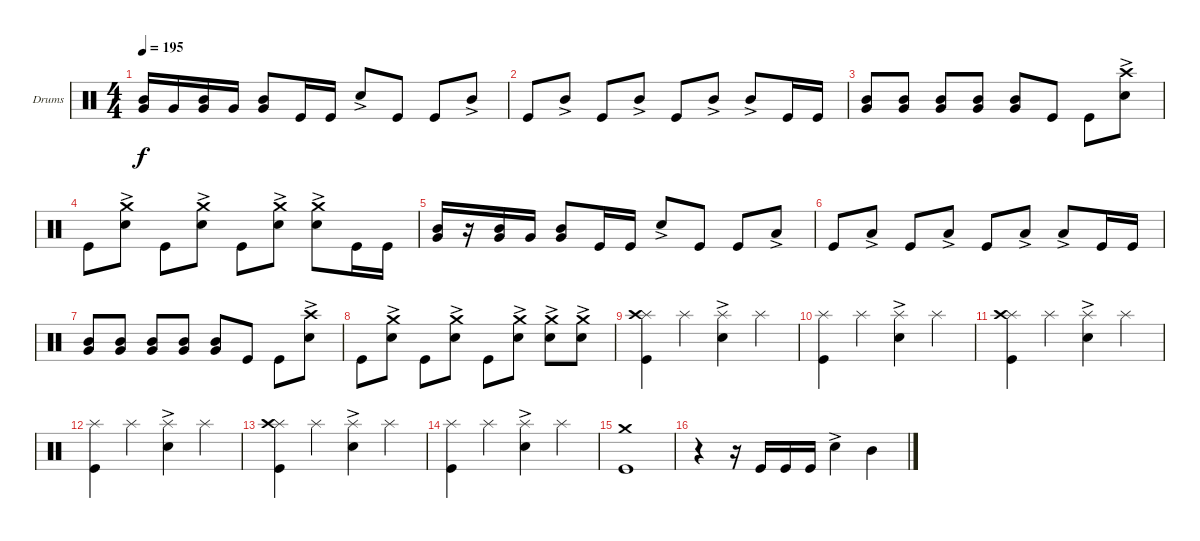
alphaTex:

\defaultSystemsLayout 4
\bracketExtendMode groupsimilarinstruments
\firstSystemTrackNameOrientation horizontal
\otherSystemsTrackNameOrientation horizontal
\track ("Drumkit" "Drums") {instrument percussion}
\staff {score}
\articulation defaults
\ts (4 4)
\tempo 195
\clef neutral
\ks c
("Very Low Tom (hit)" "Mid Tom (hit)").16{dy f} "Very Low Tom (hit)".16 ("Very Low Tom (hit)" "Mid Tom (hit)").16 "Very Low Tom (hit)".16 ("Mid Tom (hit)" "Very Low Tom (hit)").8 "Kick (hit)".16 "Kick (hit)".16 "Snare (hit) 2"{ac}.8 "Kick (hit)".8 "Kick (hit)".8 "Mid Tom (hit)"{ac}.8 |
"Kick (hit)".8 "Mid Tom (hit)"{ac}.8 "Kick (hit)".8 "Mid Tom (hit)"{ac}.8 "Kick (hit)".8 "Mid Tom (hit)"{ac}.8 "Mid Tom (hit)"{ac}.8 "Kick (hit)".16 "Kick (hit)".16 |
("Very Low Tom (hit)" "Mid Tom (hit)").8 ("Very Low Tom (hit)" "Mid Tom (hit)").8 ("Very Low Tom (hit)" "Mid Tom (hit)").8 ("Very Low Tom (hit)" "Mid Tom (hit)").8 ("Mid Tom (hit)" "Very Low Tom (hit)").8 "Kick (hit)".8 "Kick (hit)".8 ("Snare (hit) 2"{ac} "Crash high (hit)").8 |
"Kick (hit)".8 ("Snare (hit) 2"{ac} "Crash medium (hit)").8 "Kick (hit)".8 ("Snare (hit) 2"{ac} "Crash medium (hit)").8 "Kick (hit)".8 ("Snare (hit) 2"{ac} "Crash medium (hit)").8 ("Snare (hit) 2"{ac} "Crash medium (hit)").8 "Kick (hit)".16 "Kick (hit)".16 |
("Very Low Tom (hit)" "Mid Tom (hit)").16 r.16 ("Very Low Tom (hit)" "Mid Tom (hit)").16 "Very Low Tom (hit)".16 ("Mid Tom (hit)" "Very Low Tom (hit)").8 "Kick (hit)".16 "Kick (hit)".16 "Snare (hit) 2"{ac}.8 "Kick (hit)".8 "Kick (hit)".8 "Low Tom (hit)"{ac}.8 |
"Kick (hit)".8 "Low Tom (hit)"{ac}.8 "Kick (hit)".8 "Low Tom (hit)"{ac}.8 "Kick (hit)".8 "Low Tom (hit)"{ac}.8 "Low Tom (hit)"{ac}.8 "Kick (hit)".16 "Kick (hit)".16 |
("Very Low Tom (hit)" "Mid Tom (hit)").8 ("Very Low Tom (hit)" "Mid Tom (hit)").8 ("Very Low Tom (hit)" "Mid Tom (hit)").8 ("Very Low Tom (hit)" "Mid Tom (hit)").8 ("Mid Tom (hit)" "Very Low Tom (hit)").8 "Kick (hit)".8 "Kick (hit)".8 ("Snare (hit) 2"{ac} "Crash high (hit)").8 |
"Kick (hit)".8 ("Snare (hit) 2"{ac} "Crash medium (hit)").8 "Kick (hit)".8 ("Snare (hit) 2"{ac} "Crash medium (hit)").8 "Kick (hit)".8 ("Snare (hit) 2"{ac} "Crash medium (hit)").8 ("Snare (hit) 2"{ac} "Crash medium (hit)").8 ("Snare (hit) 2"{ac} "Crash medium (hit)").8 |
("Kick (hit)" "Splash (hit)" "Crash high (hit)").4 "Splash (hit)".4 ("Snare (hit) 2"{ac} "Splash (hit)").4 "Splash (hit)".4 |
("Kick (hit)" "Splash (hit)").4 "Splash (hit)".4 ("Snare (hit) 2"{ac} "Splash (hit)").4 "Splash (hit)".4 |
("Kick (hit)" "Splash (hit)" "Crash high (hit)").4 "Splash (hit)".4 ("Snare (hit) 2"{ac} "Splash (hit)").4 "Splash (hit)".4 |
("Kick (hit)" "Splash (hit)").4 "Splash (hit)".4 ("Snare (hit) 2"{ac} "Splash (hit)").4 "Splash (hit)".4 |
("Kick (hit)" "Splash (hit)" "Crash high (hit)").4 "Splash (hit)".4 ("Snare (hit) 2"{ac} "Splash (hit)").4 "Splash (hit)".4 |
("Kick (hit)" "Splash (hit)").4 "Splash (hit)".4 ("Snare (hit) 2"{ac} "Splash (hit)").4 "Splash (hit)".4 |
("Kick (hit)" "Crash medium (hit)").1 |
r.4 r.16 "Kick (hit)".16 "Kick (hit)".16 "Kick (hit)".16 "Snare (hit) 2"{ac}.4 "Mid Tom (hit)".4
